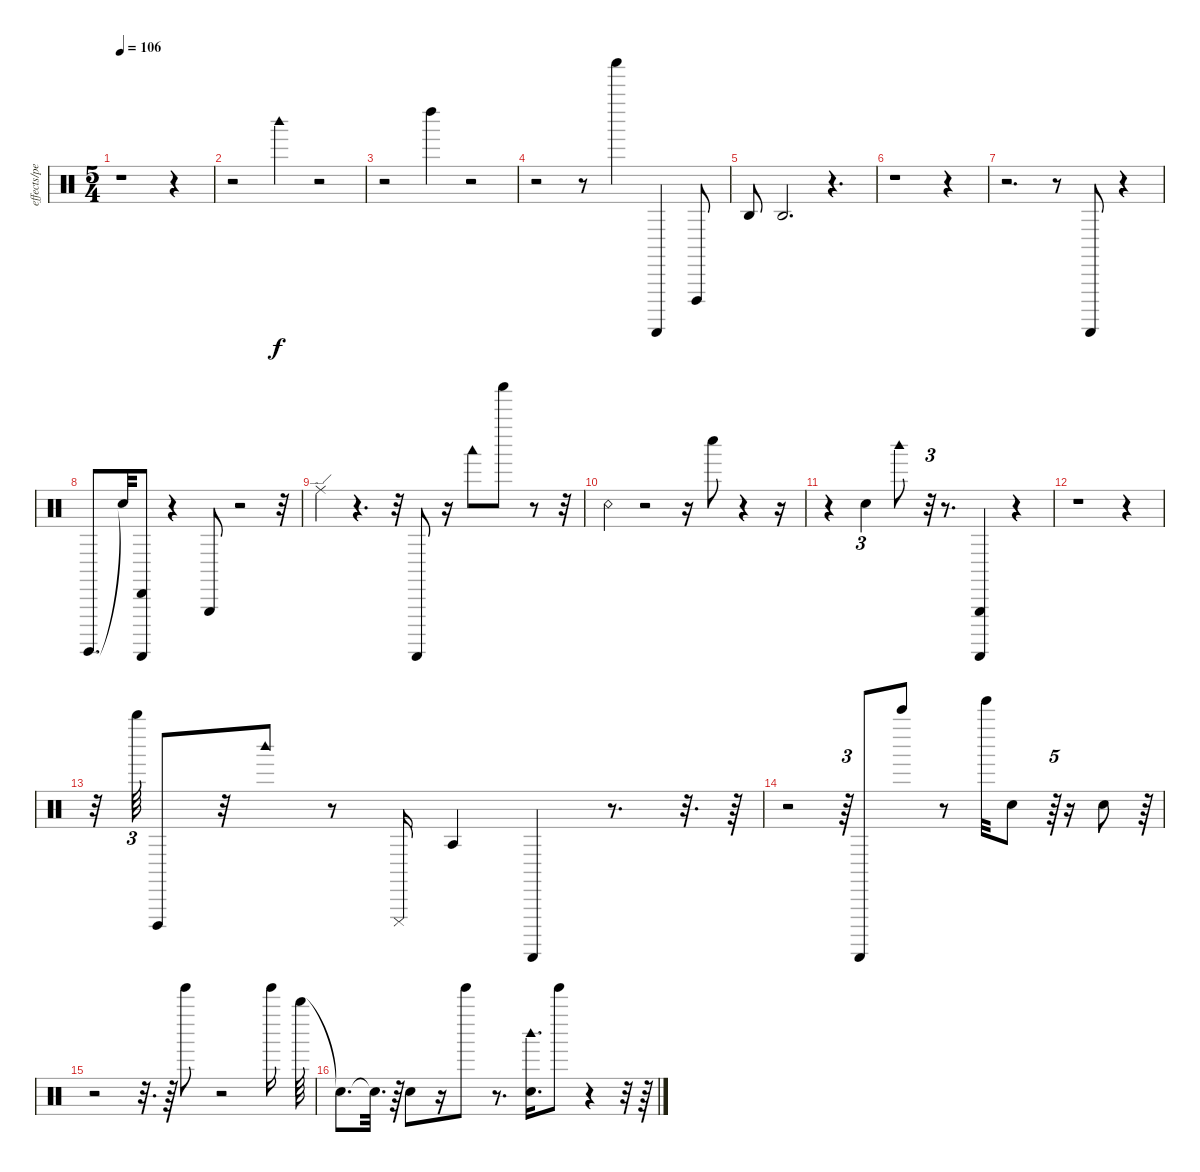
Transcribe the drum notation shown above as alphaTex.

\track ("effects/percussion" "effects/pe") {instrument percussion}
\staff {score}
\articulation defaults
\ts (5 4)
\tempo 106
\clef neutral
\ks c
r.1{dy f} r.4 |
r.2 "Woodblock high (hit)".4 r.2 |
r.2 "Left Maraca (hit)".4 r.2 |
r.2 r.8 "Shaker (hit)".4 "Guiro (scrap-return)".4 "Cuica (open)".8 |
"Agogo high (hit)".8 "Agogo high (hit)".2{d} r.4{d} |
r.1 r.4 |
r.2{d} r.8 "Guiro (scrap-return)".8 r.4 |
"Surdo (hit)".8{d} "Snare (hit)"{t}.32 ("Cabasa (hit)" "Guiro (scrap-return)").8 r.4 "Triangle (hit)".8 r.2 r.32 |
"Ride (edge)".4 r.4{d} r.32 "Guiro (scrap-return)".8 r.16 "Woodblock low (hit)".8 "Shaker (hit)".8 r.8 r.32 |
"Snare (rim shot)".4 r.2 r.16 "Whistle low (hit)".8 r.4 r.16 |
r.4 "Snare (hit)".4{tu (3 2)} "Woodblock high (hit)".8 r.32{tu (3 2)} r.8{d} ("Guiro (scrap-return)" "Triangle (hit)").4 r.4 |
r.1 r.4 |
r.32 "Whistle high (hit)".64{tu (3 2)} "Cuica (open)".8 r.32 "Woodblock high (hit)".8 r.8 "Cuica (mute)".16 "Agogo tow (hit)".4 "Guiro (scrap-return)".4 r.8{d} r.32{d} r.64 |
r.2 r.64{tu (3 2)} "Guiro (scrap-return)".8 "Bell Tree (hit)".8 r.8 "Tinkle Bell (hit)".32 "Snare (hit)".8 r.64{tu (5 4)} r.16 "Snare (hit)".8 r.64 |
r.2 r.32{d} r.64 "Tinkle Bell (hit)".8 r.2 "Tinkle Bell (hit)".16 "Whistle high (hit)".64 |
"Snare (hit)"{t}.8{d} "Snare (hit)"{t}.32{d} r.64 "Snare (hit)".8 r.16 "Tinkle Bell (hit)".8 r.8{d} ("Snare (hit)" "Woodblock high (hit)").16{d} "Tinkle Bell (hit)".8 r.4 r.32 r.64
